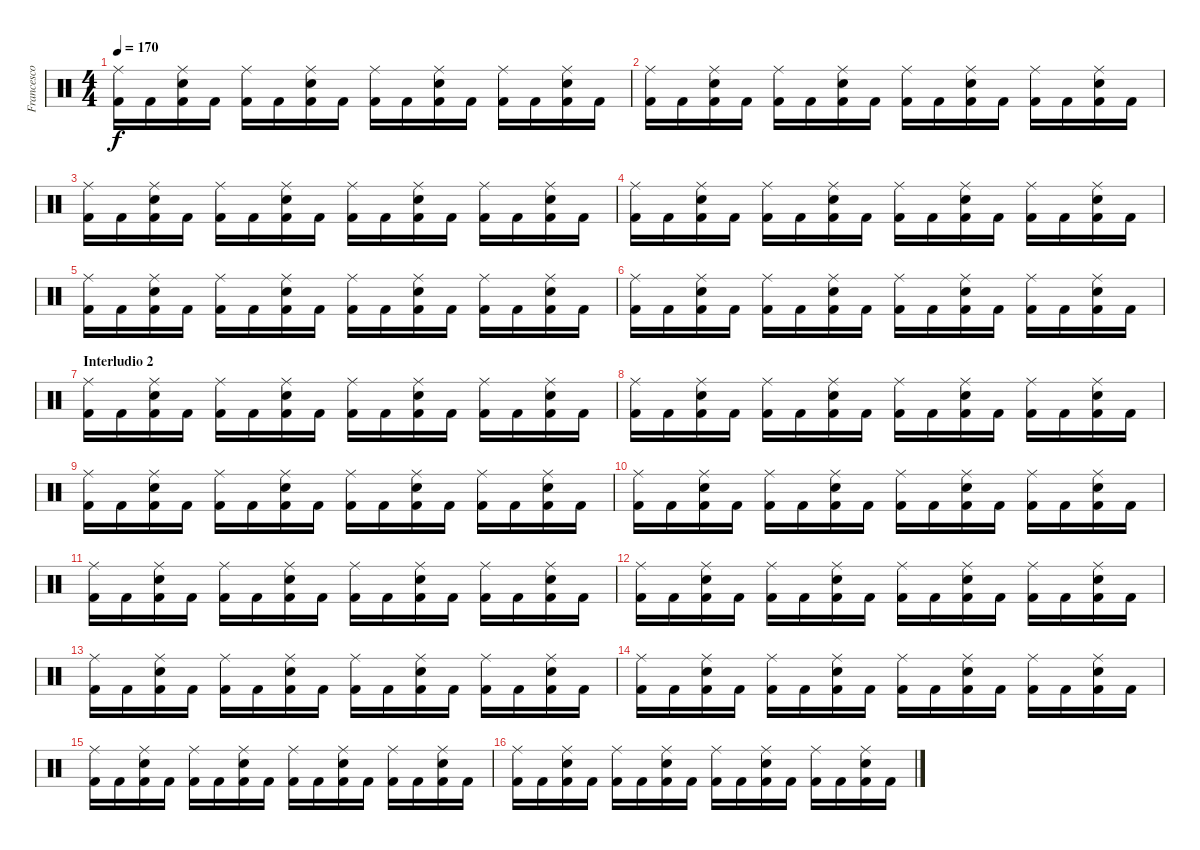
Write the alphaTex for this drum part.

\track ("Francesco Tresa" "Francesco ") {instrument percussion}
\staff {score}
\articulation defaults
\ts (4 4)
\tempo 170
\clef neutral
\ks c
("Ride (middle)" "Kick (hit) 2").16{dy f} "Kick (hit) 2".16 ("Ride (middle)" "Kick (hit) 2" "Electric Snare (hit)").16 "Kick (hit) 2".16 ("Ride (middle)" "Kick (hit) 2").16 "Kick (hit) 2".16 ("Ride (middle)" "Kick (hit) 2" "Electric Snare (hit)").16 "Kick (hit) 2".16 ("Ride (middle)" "Kick (hit) 2").16 "Kick (hit) 2".16 ("Ride (middle)" "Kick (hit) 2" "Electric Snare (hit)").16 "Kick (hit) 2".16 ("Ride (middle)" "Kick (hit) 2").16 "Kick (hit) 2".16 ("Ride (middle)" "Kick (hit) 2" "Electric Snare (hit)").16 "Kick (hit) 2".16 |
("Ride (middle)" "Kick (hit) 2").16 "Kick (hit) 2".16 ("Ride (middle)" "Kick (hit) 2" "Electric Snare (hit)").16 "Kick (hit) 2".16 ("Ride (middle)" "Kick (hit) 2").16 "Kick (hit) 2".16 ("Ride (middle)" "Kick (hit) 2" "Electric Snare (hit)").16 "Kick (hit) 2".16 ("Ride (middle)" "Kick (hit) 2").16 "Kick (hit) 2".16 ("Ride (middle)" "Kick (hit) 2" "Electric Snare (hit)").16 "Kick (hit) 2".16 ("Ride (middle)" "Kick (hit) 2").16 "Kick (hit) 2".16 ("Ride (middle)" "Kick (hit) 2" "Electric Snare (hit)").16 "Kick (hit) 2".16 |
("Ride (middle)" "Kick (hit) 2").16 "Kick (hit) 2".16 ("Ride (middle)" "Kick (hit) 2" "Electric Snare (hit)").16 "Kick (hit) 2".16 ("Ride (middle)" "Kick (hit) 2").16 "Kick (hit) 2".16 ("Ride (middle)" "Kick (hit) 2" "Electric Snare (hit)").16 "Kick (hit) 2".16 ("Ride (middle)" "Kick (hit) 2").16 "Kick (hit) 2".16 ("Ride (middle)" "Kick (hit) 2" "Electric Snare (hit)").16 "Kick (hit) 2".16 ("Ride (middle)" "Kick (hit) 2").16 "Kick (hit) 2".16 ("Ride (middle)" "Kick (hit) 2" "Electric Snare (hit)").16 "Kick (hit) 2".16 |
("Ride (middle)" "Kick (hit) 2").16 "Kick (hit) 2".16 ("Ride (middle)" "Kick (hit) 2" "Electric Snare (hit)").16 "Kick (hit) 2".16 ("Ride (middle)" "Kick (hit) 2").16 "Kick (hit) 2".16 ("Ride (middle)" "Kick (hit) 2" "Electric Snare (hit)").16 "Kick (hit) 2".16 ("Ride (middle)" "Kick (hit) 2").16 "Kick (hit) 2".16 ("Ride (middle)" "Kick (hit) 2" "Electric Snare (hit)").16 "Kick (hit) 2".16 ("Ride (middle)" "Kick (hit) 2").16 "Kick (hit) 2".16 ("Ride (middle)" "Kick (hit) 2" "Electric Snare (hit)").16 "Kick (hit) 2".16 |
("Ride (middle)" "Kick (hit) 2").16 "Kick (hit) 2".16 ("Ride (middle)" "Kick (hit) 2" "Electric Snare (hit)").16 "Kick (hit) 2".16 ("Ride (middle)" "Kick (hit) 2").16 "Kick (hit) 2".16 ("Ride (middle)" "Kick (hit) 2" "Electric Snare (hit)").16 "Kick (hit) 2".16 ("Ride (middle)" "Kick (hit) 2").16 "Kick (hit) 2".16 ("Ride (middle)" "Kick (hit) 2" "Electric Snare (hit)").16 "Kick (hit) 2".16 ("Ride (middle)" "Kick (hit) 2").16 "Kick (hit) 2".16 ("Ride (middle)" "Kick (hit) 2" "Electric Snare (hit)").16 "Kick (hit) 2".16 |
("Ride (middle)" "Kick (hit) 2").16 "Kick (hit) 2".16 ("Ride (middle)" "Kick (hit) 2" "Electric Snare (hit)").16 "Kick (hit) 2".16 ("Ride (middle)" "Kick (hit) 2").16 "Kick (hit) 2".16 ("Ride (middle)" "Kick (hit) 2" "Electric Snare (hit)").16 "Kick (hit) 2".16 ("Ride (middle)" "Kick (hit) 2").16 "Kick (hit) 2".16 ("Ride (middle)" "Kick (hit) 2" "Electric Snare (hit)").16 "Kick (hit) 2".16 ("Ride (middle)" "Kick (hit) 2").16 "Kick (hit) 2".16 ("Ride (middle)" "Kick (hit) 2" "Electric Snare (hit)").16 "Kick (hit) 2".16 |
\section ("" "Interludio 2")
("Ride (middle)" "Kick (hit) 2").16 "Kick (hit) 2".16 ("Ride (middle)" "Kick (hit) 2" "Electric Snare (hit)").16 "Kick (hit) 2".16 ("Ride (middle)" "Kick (hit) 2").16 "Kick (hit) 2".16 ("Ride (middle)" "Kick (hit) 2" "Electric Snare (hit)").16 "Kick (hit) 2".16 ("Ride (middle)" "Kick (hit) 2").16 "Kick (hit) 2".16 ("Ride (middle)" "Kick (hit) 2" "Electric Snare (hit)").16 "Kick (hit) 2".16 ("Ride (middle)" "Kick (hit) 2").16 "Kick (hit) 2".16 ("Ride (middle)" "Kick (hit) 2" "Electric Snare (hit)").16 "Kick (hit) 2".16 |
("Ride (middle)" "Kick (hit) 2").16 "Kick (hit) 2".16 ("Ride (middle)" "Kick (hit) 2" "Electric Snare (hit)").16 "Kick (hit) 2".16 ("Ride (middle)" "Kick (hit) 2").16 "Kick (hit) 2".16 ("Ride (middle)" "Kick (hit) 2" "Electric Snare (hit)").16 "Kick (hit) 2".16 ("Ride (middle)" "Kick (hit) 2").16 "Kick (hit) 2".16 ("Ride (middle)" "Kick (hit) 2" "Electric Snare (hit)").16 "Kick (hit) 2".16 ("Ride (middle)" "Kick (hit) 2").16 "Kick (hit) 2".16 ("Ride (middle)" "Kick (hit) 2" "Electric Snare (hit)").16 "Kick (hit) 2".16 |
("Ride (middle)" "Kick (hit) 2").16 "Kick (hit) 2".16 ("Ride (middle)" "Kick (hit) 2" "Electric Snare (hit)").16 "Kick (hit) 2".16 ("Ride (middle)" "Kick (hit) 2").16 "Kick (hit) 2".16 ("Ride (middle)" "Kick (hit) 2" "Electric Snare (hit)").16 "Kick (hit) 2".16 ("Ride (middle)" "Kick (hit) 2").16 "Kick (hit) 2".16 ("Ride (middle)" "Kick (hit) 2" "Electric Snare (hit)").16 "Kick (hit) 2".16 ("Ride (middle)" "Kick (hit) 2").16 "Kick (hit) 2".16 ("Ride (middle)" "Kick (hit) 2" "Electric Snare (hit)").16 "Kick (hit) 2".16 |
("Ride (middle)" "Kick (hit) 2").16 "Kick (hit) 2".16 ("Ride (middle)" "Kick (hit) 2" "Electric Snare (hit)").16 "Kick (hit) 2".16 ("Ride (middle)" "Kick (hit) 2").16 "Kick (hit) 2".16 ("Ride (middle)" "Kick (hit) 2" "Electric Snare (hit)").16 "Kick (hit) 2".16 ("Ride (middle)" "Kick (hit) 2").16 "Kick (hit) 2".16 ("Ride (middle)" "Kick (hit) 2" "Electric Snare (hit)").16 "Kick (hit) 2".16 ("Ride (middle)" "Kick (hit) 2").16 "Kick (hit) 2".16 ("Ride (middle)" "Kick (hit) 2" "Electric Snare (hit)").16 "Kick (hit) 2".16 |
("Ride (middle)" "Kick (hit) 2").16 "Kick (hit) 2".16 ("Ride (middle)" "Kick (hit) 2" "Electric Snare (hit)").16 "Kick (hit) 2".16 ("Ride (middle)" "Kick (hit) 2").16 "Kick (hit) 2".16 ("Ride (middle)" "Kick (hit) 2" "Electric Snare (hit)").16 "Kick (hit) 2".16 ("Ride (middle)" "Kick (hit) 2").16 "Kick (hit) 2".16 ("Ride (middle)" "Kick (hit) 2" "Electric Snare (hit)").16 "Kick (hit) 2".16 ("Ride (middle)" "Kick (hit) 2").16 "Kick (hit) 2".16 ("Ride (middle)" "Kick (hit) 2" "Electric Snare (hit)").16 "Kick (hit) 2".16 |
("Ride (middle)" "Kick (hit) 2").16 "Kick (hit) 2".16 ("Ride (middle)" "Kick (hit) 2" "Electric Snare (hit)").16 "Kick (hit) 2".16 ("Ride (middle)" "Kick (hit) 2").16 "Kick (hit) 2".16 ("Ride (middle)" "Kick (hit) 2" "Electric Snare (hit)").16 "Kick (hit) 2".16 ("Ride (middle)" "Kick (hit) 2").16 "Kick (hit) 2".16 ("Ride (middle)" "Kick (hit) 2" "Electric Snare (hit)").16 "Kick (hit) 2".16 ("Ride (middle)" "Kick (hit) 2").16 "Kick (hit) 2".16 ("Ride (middle)" "Kick (hit) 2" "Electric Snare (hit)").16 "Kick (hit) 2".16 |
("Ride (middle)" "Kick (hit) 2").16 "Kick (hit) 2".16 ("Ride (middle)" "Kick (hit) 2" "Electric Snare (hit)").16 "Kick (hit) 2".16 ("Ride (middle)" "Kick (hit) 2").16 "Kick (hit) 2".16 ("Ride (middle)" "Kick (hit) 2" "Electric Snare (hit)").16 "Kick (hit) 2".16 ("Ride (middle)" "Kick (hit) 2").16 "Kick (hit) 2".16 ("Ride (middle)" "Kick (hit) 2" "Electric Snare (hit)").16 "Kick (hit) 2".16 ("Ride (middle)" "Kick (hit) 2").16 "Kick (hit) 2".16 ("Ride (middle)" "Kick (hit) 2" "Electric Snare (hit)").16 "Kick (hit) 2".16 |
("Ride (middle)" "Kick (hit) 2").16 "Kick (hit) 2".16 ("Ride (middle)" "Kick (hit) 2" "Electric Snare (hit)").16 "Kick (hit) 2".16 ("Ride (middle)" "Kick (hit) 2").16 "Kick (hit) 2".16 ("Ride (middle)" "Kick (hit) 2" "Electric Snare (hit)").16 "Kick (hit) 2".16 ("Ride (middle)" "Kick (hit) 2").16 "Kick (hit) 2".16 ("Ride (middle)" "Kick (hit) 2" "Electric Snare (hit)").16 "Kick (hit) 2".16 ("Ride (middle)" "Kick (hit) 2").16 "Kick (hit) 2".16 ("Ride (middle)" "Kick (hit) 2" "Electric Snare (hit)").16 "Kick (hit) 2".16 |
("Ride (middle)" "Kick (hit) 2").16 "Kick (hit) 2".16 ("Ride (middle)" "Kick (hit) 2" "Electric Snare (hit)").16 "Kick (hit) 2".16 ("Ride (middle)" "Kick (hit) 2").16 "Kick (hit) 2".16 ("Ride (middle)" "Kick (hit) 2" "Electric Snare (hit)").16 "Kick (hit) 2".16 ("Ride (middle)" "Kick (hit) 2").16 "Kick (hit) 2".16 ("Ride (middle)" "Kick (hit) 2" "Electric Snare (hit)").16 "Kick (hit) 2".16 ("Ride (middle)" "Kick (hit) 2").16 "Kick (hit) 2".16 ("Ride (middle)" "Kick (hit) 2" "Electric Snare (hit)").16 "Kick (hit) 2".16 |
("Ride (middle)" "Kick (hit) 2").16 "Kick (hit) 2".16 ("Ride (middle)" "Kick (hit) 2" "Electric Snare (hit)").16 "Kick (hit) 2".16 ("Ride (middle)" "Kick (hit) 2").16 "Kick (hit) 2".16 ("Ride (middle)" "Kick (hit) 2" "Electric Snare (hit)").16 "Kick (hit) 2".16 ("Ride (middle)" "Kick (hit) 2").16 "Kick (hit) 2".16 ("Ride (middle)" "Kick (hit) 2" "Electric Snare (hit)").16 "Kick (hit) 2".16 ("Ride (middle)" "Kick (hit) 2").16 "Kick (hit) 2".16 ("Ride (middle)" "Kick (hit) 2" "Electric Snare (hit)").16 "Kick (hit) 2".16
